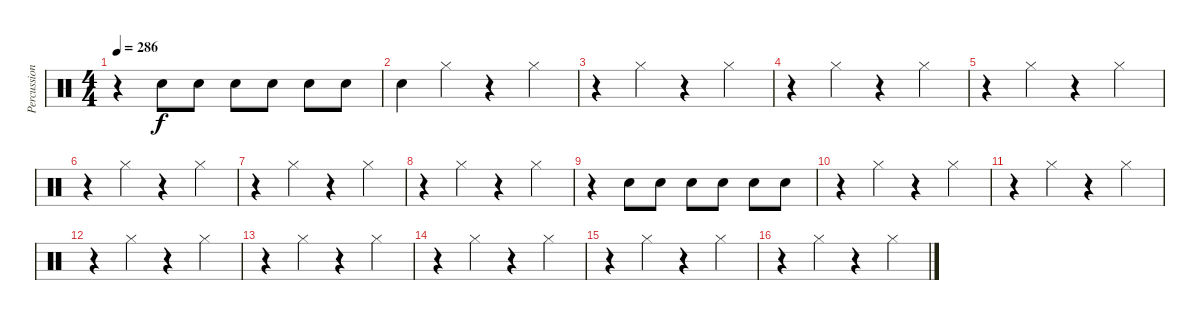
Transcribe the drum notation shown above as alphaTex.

\track ("Percussions" "Percussion") {instrument percussion}
\staff {score}
\articulation defaults
\ts (4 4)
\tempo 286
\clef neutral
\ks c
r.4{dy f} "Electric Snare (hit)".8 "Electric Snare (hit)".8 "Electric Snare (hit)".8 "Electric Snare (hit)".8 "Electric Snare (hit)".8 "Electric Snare (hit)".8 |
"Electric Snare (hit)".4 "Hi-Hat (closed)".4 r.4 "Hi-Hat (closed)".4 |
r.4 "Hi-Hat (closed)".4 r.4 "Hi-Hat (closed)".4 |
r.4 "Hi-Hat (closed)".4 r.4 "Hi-Hat (closed)".4 |
r.4 "Hi-Hat (closed)".4 r.4 "Hi-Hat (closed)".4 |
r.4 "Hi-Hat (closed)".4 r.4 "Hi-Hat (closed)".4 |
r.4 "Hi-Hat (closed)".4 r.4 "Hi-Hat (closed)".4 |
r.4 "Hi-Hat (closed)".4 r.4 "Hi-Hat (closed)".4 |
r.4 "Electric Snare (hit)".8 "Electric Snare (hit)".8 "Electric Snare (hit)".8 "Electric Snare (hit)".8 "Electric Snare (hit)".8 "Electric Snare (hit)".8 |
r.4 "Hi-Hat (closed)".4 r.4 "Hi-Hat (closed)".4 |
r.4 "Hi-Hat (closed)".4 r.4 "Hi-Hat (closed)".4 |
r.4 "Hi-Hat (closed)".4 r.4 "Hi-Hat (closed)".4 |
r.4 "Hi-Hat (closed)".4 r.4 "Hi-Hat (closed)".4 |
r.4 "Hi-Hat (closed)".4 r.4 "Hi-Hat (closed)".4 |
r.4 "Hi-Hat (closed)".4 r.4 "Hi-Hat (closed)".4 |
r.4 "Hi-Hat (closed)".4 r.4 "Hi-Hat (closed)".4
